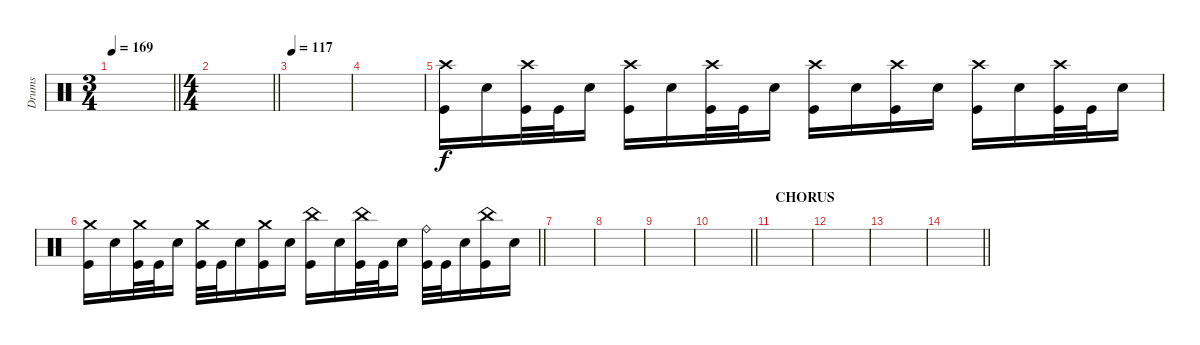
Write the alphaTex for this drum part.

\track ("Drums" "Drums") {instrument percussion}
\staff
\articulation defaults
\ts (3 4)
\tempo 169
\clef neutral
\barLineRight lightlight
\ks c
|
\ts (4 4)
\barLineRight lightlight
|
\section ("" "")
\tempo 117
|
|
("Crash high (hit)" "Kick (hit)").16 "Electric Snare (hit)".16 ("Crash high (hit)" "Kick (hit)").32 "Kick (hit)".32 "Electric Snare (hit)".16 ("Crash high (hit)" "Kick (hit)").16 "Electric Snare (hit)".16 ("Crash high (hit)" "Kick (hit)").32 "Kick (hit)".32 "Electric Snare (hit)".16 ("Crash high (hit)" "Kick (hit)").16 "Electric Snare (hit)".16 ("Crash high (hit)" "Kick (hit)").16 "Electric Snare (hit)".16 ("Crash high (hit)" "Kick (hit)").16 "Electric Snare (hit)".16 ("Crash high (hit)" "Kick (hit)").32 "Kick (hit)".32 "Electric Snare (hit)".16 |
\barLineRight lightlight
("Crash medium (hit)" "Kick (hit)").16 "Electric Snare (hit)".16 ("Crash medium (hit)" "Kick (hit)").32 "Kick (hit)".32 "Electric Snare (hit)".16 ("Crash medium (hit)" "Kick (hit)").32 "Kick (hit)".32 "Electric Snare (hit)".16 ("Crash medium (hit)" "Kick (hit)").16 "Electric Snare (hit)".16 ("China (hit)" "Kick (hit)").16 "Electric Snare (hit)".16 ("China (hit)" "Kick (hit)").32 "Kick (hit)".32 "Electric Snare (hit)".16 ("Ride (bell)" "Kick (hit)").32 "Kick (hit)".32 "Electric Snare (hit)".16 ("China (hit)" "Kick (hit)").16 "Electric Snare (hit)".16 |
|
|
|
\barLineRight lightlight
|
\section ("" "CHORUS")
|
|
|
\barLineRight lightlight
